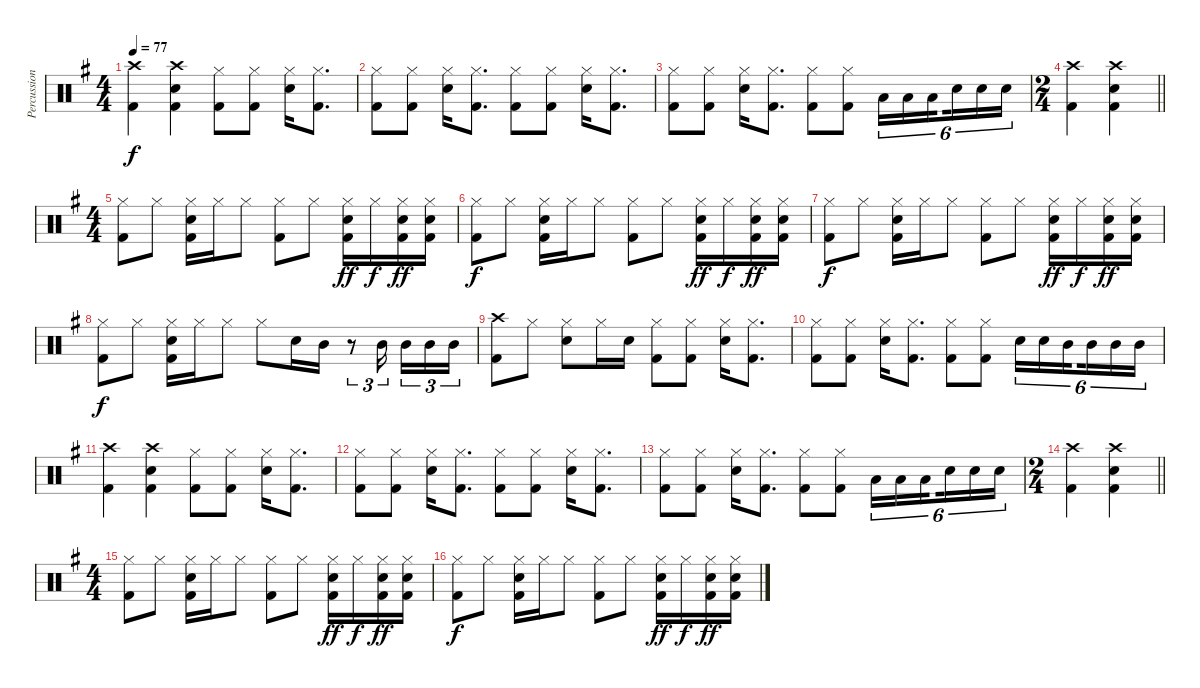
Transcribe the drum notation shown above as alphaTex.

\track ("Percussion" "Percussion") {instrument percussion}
\staff {score}
\articulation defaults
\ts (4 4)
\tempo 77
\clef neutral
\ks g
("Crash high (hit)" "Kick (hit) 2").4{dy f} ("Crash high (hit)" "Kick (hit) 2" "Snare (hit) 2").4 ("Hi-Hat (closed)" "Kick (hit) 2").8 ("Hi-Hat (closed)" "Kick (hit) 2").8 ("Hi-Hat (closed)" "Snare (hit) 2").16 ("Hi-Hat (closed)" "Kick (hit) 2").8{d} |
("Hi-Hat (closed)" "Kick (hit) 2").8 ("Hi-Hat (closed)" "Kick (hit) 2").8 ("Hi-Hat (closed)" "Snare (hit) 2").16 ("Hi-Hat (closed)" "Kick (hit) 2").8{d} ("Hi-Hat (closed)" "Kick (hit) 2").8 ("Hi-Hat (closed)" "Kick (hit) 2").8 ("Hi-Hat (closed)" "Snare (hit) 2").16 ("Hi-Hat (closed)" "Kick (hit) 2").8{d} |
("Hi-Hat (closed)" "Kick (hit) 2").8 ("Hi-Hat (closed)" "Kick (hit) 2").8 ("Hi-Hat (closed)" "Snare (hit) 2").16 ("Hi-Hat (closed)" "Kick (hit) 2").8{d} ("Hi-Hat (closed)" "Kick (hit) 2").8 ("Hi-Hat (closed)" "Kick (hit) 2").8 "Low Floor Tom (hit)".16{tu (6 4)} "Low Floor Tom (hit)".16{tu (6 4)} "Low Floor Tom (hit)".16{tu (6 4) beam splitsecondary} "Snare (hit) 2".16{tu (6 4)} "Snare (hit) 2".16{tu (6 4)} "Snare (hit) 2".16{tu (6 4)} |
\ts (2 4)
\barLineRight lightlight
("Crash high (hit)" "Kick (hit) 2").4 ("Crash high (hit)" "Kick (hit) 2" "Snare (hit) 2").4 |
\ts (4 4)
("Hi-Hat (closed)" "Kick (hit) 2").8 "Hi-Hat (closed)".8 ("Hi-Hat (closed)" "Snare (hit) 2" "Kick (hit) 2").16 "Hi-Hat (closed)".16 "Hi-Hat (closed)".8 ("Hi-Hat (closed)" "Kick (hit) 2").8 "Hi-Hat (closed)".8 ("Hi-Hat (closed)" "Snare (hit) 2" "Kick (hit) 2").16{dy ff} "Hi-Hat (closed)".16{dy f} ("Hi-Hat (closed)" "Snare (hit) 2" "Kick (hit) 2").16{dy ff} ("Hi-Hat (closed)" "Snare (hit) 2" "Kick (hit) 2").16 |
("Hi-Hat (closed)" "Kick (hit) 2").8{dy f} "Hi-Hat (closed)".8 ("Hi-Hat (closed)" "Snare (hit) 2" "Kick (hit) 2").16 "Hi-Hat (closed)".16 "Hi-Hat (closed)".8 ("Hi-Hat (closed)" "Kick (hit) 2").8 "Hi-Hat (closed)".8 ("Hi-Hat (closed)" "Snare (hit) 2" "Kick (hit) 2").16{dy ff} "Hi-Hat (closed)".16{dy f} ("Hi-Hat (closed)" "Snare (hit) 2" "Kick (hit) 2").16{dy ff} ("Hi-Hat (closed)" "Snare (hit) 2" "Kick (hit) 2").16 |
("Hi-Hat (closed)" "Kick (hit) 2").8{dy f} "Hi-Hat (closed)".8 ("Hi-Hat (closed)" "Snare (hit) 2" "Kick (hit) 2").16 "Hi-Hat (closed)".16 "Hi-Hat (closed)".8 ("Hi-Hat (closed)" "Kick (hit) 2").8 "Hi-Hat (closed)".8 ("Hi-Hat (closed)" "Snare (hit) 2" "Kick (hit) 2").16{dy ff} "Hi-Hat (closed)".16{dy f} ("Hi-Hat (closed)" "Snare (hit) 2" "Kick (hit) 2").16{dy ff} ("Hi-Hat (closed)" "Snare (hit) 2" "Kick (hit) 2").16 |
("Hi-Hat (closed)" "Kick (hit) 2").8{dy f} "Hi-Hat (closed)".8 ("Hi-Hat (closed)" "Snare (hit) 2" "Kick (hit) 2").16 "Hi-Hat (closed)".16 "Hi-Hat (closed)".8 "Hi-Hat (closed)".8 "Snare (hit) 2".16 "Mid Tom (hit)".16 r.8{tu (3 2)} "Mid Tom (hit)".16{tu (3 2) beam splitsecondary} "Mid Tom (hit)".16{tu (3 2)} "Mid Tom (hit)".16{tu (3 2)} "Mid Tom (hit)".16{tu (3 2)} |
("Crash high (hit)" "Kick (hit) 2").8 "Hi-Hat (closed)".8 ("Hi-Hat (closed)" "Snare (hit) 2").8 "Hi-Hat (closed)".16 "Snare (hit) 2".16 ("Hi-Hat (closed)" "Kick (hit) 2").8 ("Hi-Hat (closed)" "Kick (hit) 2").8 ("Hi-Hat (closed)" "Snare (hit) 2").16 ("Hi-Hat (closed)" "Kick (hit) 2").8{d} |
("Hi-Hat (closed)" "Kick (hit) 2").8 ("Hi-Hat (closed)" "Kick (hit) 2").8 ("Hi-Hat (closed)" "Snare (hit) 2").16 ("Hi-Hat (closed)" "Kick (hit) 2").8{d} ("Hi-Hat (closed)" "Kick (hit) 2").8 ("Hi-Hat (closed)" "Kick (hit) 2").8 "Snare (hit) 2".16{tu (6 4)} "Snare (hit) 2".16{tu (6 4)} "Mid Tom (hit)".16{tu (6 4) beam splitsecondary} "Mid Tom (hit)".16{tu (6 4)} "Mid Tom (hit)".16{tu (6 4)} "Mid Tom (hit)".16{tu (6 4)} |
("Crash high (hit)" "Kick (hit) 2").4 ("Crash high (hit)" "Kick (hit) 2" "Snare (hit) 2").4 ("Hi-Hat (closed)" "Kick (hit) 2").8 ("Hi-Hat (closed)" "Kick (hit) 2").8 ("Hi-Hat (closed)" "Snare (hit) 2").16 ("Hi-Hat (closed)" "Kick (hit) 2").8{d} |
("Hi-Hat (closed)" "Kick (hit) 2").8 ("Hi-Hat (closed)" "Kick (hit) 2").8 ("Hi-Hat (closed)" "Snare (hit) 2").16 ("Hi-Hat (closed)" "Kick (hit) 2").8{d} ("Hi-Hat (closed)" "Kick (hit) 2").8 ("Hi-Hat (closed)" "Kick (hit) 2").8 ("Hi-Hat (closed)" "Snare (hit) 2").16 ("Hi-Hat (closed)" "Kick (hit) 2").8{d} |
("Hi-Hat (closed)" "Kick (hit) 2").8 ("Hi-Hat (closed)" "Kick (hit) 2").8 ("Hi-Hat (closed)" "Snare (hit) 2").16 ("Hi-Hat (closed)" "Kick (hit) 2").8{d} ("Hi-Hat (closed)" "Kick (hit) 2").8 ("Hi-Hat (closed)" "Kick (hit) 2").8 "Low Floor Tom (hit)".16{tu (6 4)} "Low Floor Tom (hit)".16{tu (6 4)} "Low Floor Tom (hit)".16{tu (6 4) beam splitsecondary} "Snare (hit) 2".16{tu (6 4)} "Snare (hit) 2".16{tu (6 4)} "Snare (hit) 2".16{tu (6 4)} |
\ts (2 4)
\barLineRight lightlight
("Crash high (hit)" "Kick (hit) 2").4 ("Crash high (hit)" "Kick (hit) 2" "Snare (hit) 2").4 |
\ts (4 4)
("Hi-Hat (closed)" "Kick (hit) 2").8 "Hi-Hat (closed)".8 ("Hi-Hat (closed)" "Snare (hit) 2" "Kick (hit) 2").16 "Hi-Hat (closed)".16 "Hi-Hat (closed)".8 ("Hi-Hat (closed)" "Kick (hit) 2").8 "Hi-Hat (closed)".8 ("Hi-Hat (closed)" "Snare (hit) 2" "Kick (hit) 2").16{dy ff} "Hi-Hat (closed)".16{dy f} ("Hi-Hat (closed)" "Snare (hit) 2" "Kick (hit) 2").16{dy ff} ("Hi-Hat (closed)" "Snare (hit) 2" "Kick (hit) 2").16 |
("Hi-Hat (closed)" "Kick (hit) 2").8{dy f} "Hi-Hat (closed)".8 ("Hi-Hat (closed)" "Snare (hit) 2" "Kick (hit) 2").16 "Hi-Hat (closed)".16 "Hi-Hat (closed)".8 ("Hi-Hat (closed)" "Kick (hit) 2").8 "Hi-Hat (closed)".8 ("Hi-Hat (closed)" "Snare (hit) 2" "Kick (hit) 2").16{dy ff} "Hi-Hat (closed)".16{dy f} ("Hi-Hat (closed)" "Snare (hit) 2" "Kick (hit) 2").16{dy ff} ("Hi-Hat (closed)" "Snare (hit) 2" "Kick (hit) 2").16
